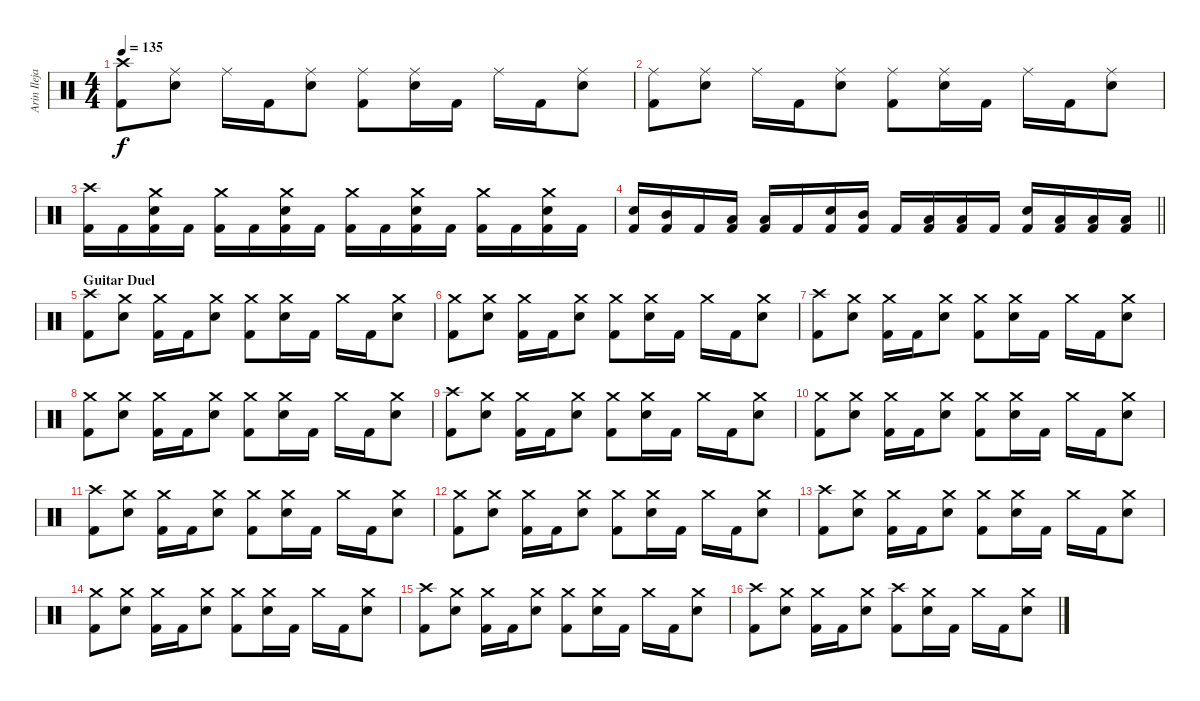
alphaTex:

\track ("Arin Ilejay" "Arin Ileja") {instrument percussion}
\staff {score}
\articulation defaults
\ts (4 4)
\tempo 135
\clef neutral
\ks c
("Crash high (hit)" "Kick (hit) 2").8{dy f} ("Ride (middle)" "Electric Snare (hit)").8 "Ride (middle)".16 "Kick (hit) 2".16 ("Ride (middle)" "Electric Snare (hit)").8 ("Ride (middle)" "Kick (hit) 2").8 ("Ride (middle)" "Electric Snare (hit)").16 "Kick (hit) 2".16 "Ride (middle)".16 "Kick (hit) 2".16 ("Ride (middle)" "Electric Snare (hit)").8 |
("Ride (middle)" "Kick (hit) 2").8 ("Ride (middle)" "Electric Snare (hit)").8 "Ride (middle)".16 "Kick (hit) 2".16 ("Ride (middle)" "Electric Snare (hit)").8 ("Ride (middle)" "Kick (hit) 2").8 ("Ride (middle)" "Electric Snare (hit)").16 "Kick (hit) 2".16 "Ride (middle)".16 "Kick (hit) 2".16 ("Ride (middle)" "Electric Snare (hit)").8 |
("Crash high (hit)" "Kick (hit) 2").16 "Kick (hit) 2".16 ("Crash medium (hit)" "Electric Snare (hit)" "Kick (hit) 2").16 "Kick (hit) 2".16 ("Crash medium (hit)" "Kick (hit) 2").16 "Kick (hit) 2".16 ("Crash medium (hit)" "Electric Snare (hit)" "Kick (hit) 2").16 "Kick (hit) 2".16 ("Crash medium (hit)" "Kick (hit) 2").16 "Kick (hit) 2".16 ("Crash medium (hit)" "Electric Snare (hit)" "Kick (hit) 2").16 "Kick (hit) 2".16 ("Crash medium (hit)" "Kick (hit) 2").16 "Kick (hit) 2".16 ("Crash medium (hit)" "Electric Snare (hit)" "Kick (hit) 2").16 "Kick (hit) 2".16 |
\barLineRight lightlight
("Electric Snare (hit)" "Kick (hit) 2").16 ("Mid Tom (hit)" "Kick (hit) 2").16 "Kick (hit) 2".16 ("Low Tom (hit)" "Kick (hit) 2").16 ("Low Tom (hit)" "Kick (hit) 2").16 "Kick (hit) 2".16 ("Electric Snare (hit)" "Kick (hit) 2").16 ("Mid Tom (hit)" "Kick (hit) 2").16 "Kick (hit) 2".16 ("Low Tom (hit)" "Kick (hit) 2").16 ("Low Tom (hit)" "Kick (hit) 2").16 "Kick (hit) 2".16 ("Electric Snare (hit)" "Kick (hit) 2").16 ("Low Tom (hit)" "Kick (hit) 2").16 ("Low Tom (hit)" "Kick (hit) 2").16 ("Low Tom (hit)" "Kick (hit) 2").16 |
\section ("" "Guitar Duel")
("Crash high (hit)" "Kick (hit) 2").8 ("Crash medium (hit)" "Electric Snare (hit)").8 ("Crash medium (hit)" "Kick (hit) 2").16 "Kick (hit) 2".16 ("Crash medium (hit)" "Electric Snare (hit)").8 ("Crash medium (hit)" "Kick (hit) 2").8 ("Crash medium (hit)" "Electric Snare (hit)").16 "Kick (hit) 2".16 "Crash medium (hit)".16 "Kick (hit) 2".16 ("Crash medium (hit)" "Electric Snare (hit)").8 |
("Crash medium (hit)" "Kick (hit) 2").8 ("Crash medium (hit)" "Electric Snare (hit)").8 ("Crash medium (hit)" "Kick (hit) 2").16 "Kick (hit) 2".16 ("Crash medium (hit)" "Electric Snare (hit)").8 ("Crash medium (hit)" "Kick (hit) 2").8 ("Crash medium (hit)" "Electric Snare (hit)").16 "Kick (hit) 2".16 "Crash medium (hit)".16 "Kick (hit) 2".16 ("Crash medium (hit)" "Electric Snare (hit)").8 |
("Crash high (hit)" "Kick (hit) 2").8 ("Crash medium (hit)" "Electric Snare (hit)").8 ("Crash medium (hit)" "Kick (hit) 2").16 "Kick (hit) 2".16 ("Crash medium (hit)" "Electric Snare (hit)").8 ("Crash medium (hit)" "Kick (hit) 2").8 ("Crash medium (hit)" "Electric Snare (hit)").16 "Kick (hit) 2".16 "Crash medium (hit)".16 "Kick (hit) 2".16 ("Crash medium (hit)" "Electric Snare (hit)").8 |
("Crash medium (hit)" "Kick (hit) 2").8 ("Crash medium (hit)" "Electric Snare (hit)").8 ("Crash medium (hit)" "Kick (hit) 2").16 "Kick (hit) 2".16 ("Crash medium (hit)" "Electric Snare (hit)").8 ("Crash medium (hit)" "Kick (hit) 2").8 ("Crash medium (hit)" "Electric Snare (hit)").16 "Kick (hit) 2".16 "Crash medium (hit)".16 "Kick (hit) 2".16 ("Crash medium (hit)" "Electric Snare (hit)").8 |
("Crash high (hit)" "Kick (hit) 2").8 ("Crash medium (hit)" "Electric Snare (hit)").8 ("Crash medium (hit)" "Kick (hit) 2").16 "Kick (hit) 2".16 ("Crash medium (hit)" "Electric Snare (hit)").8 ("Crash medium (hit)" "Kick (hit) 2").8 ("Crash medium (hit)" "Electric Snare (hit)").16 "Kick (hit) 2".16 "Crash medium (hit)".16 "Kick (hit) 2".16 ("Crash medium (hit)" "Electric Snare (hit)").8 |
("Crash medium (hit)" "Kick (hit) 2").8 ("Crash medium (hit)" "Electric Snare (hit)").8 ("Crash medium (hit)" "Kick (hit) 2").16 "Kick (hit) 2".16 ("Crash medium (hit)" "Electric Snare (hit)").8 ("Crash medium (hit)" "Kick (hit) 2").8 ("Crash medium (hit)" "Electric Snare (hit)").16 "Kick (hit) 2".16 "Crash medium (hit)".16 "Kick (hit) 2".16 ("Crash medium (hit)" "Electric Snare (hit)").8 |
("Crash high (hit)" "Kick (hit) 2").8 ("Crash medium (hit)" "Electric Snare (hit)").8 ("Crash medium (hit)" "Kick (hit) 2").16 "Kick (hit) 2".16 ("Crash medium (hit)" "Electric Snare (hit)").8 ("Crash medium (hit)" "Kick (hit) 2").8 ("Crash medium (hit)" "Electric Snare (hit)").16 "Kick (hit) 2".16 "Crash medium (hit)".16 "Kick (hit) 2".16 ("Crash medium (hit)" "Electric Snare (hit)").8 |
("Crash medium (hit)" "Kick (hit) 2").8 ("Crash medium (hit)" "Electric Snare (hit)").8 ("Crash medium (hit)" "Kick (hit) 2").16 "Kick (hit) 2".16 ("Crash medium (hit)" "Electric Snare (hit)").8 ("Crash medium (hit)" "Kick (hit) 2").8 ("Crash medium (hit)" "Electric Snare (hit)").16 "Kick (hit) 2".16 "Crash medium (hit)".16 "Kick (hit) 2".16 ("Crash medium (hit)" "Electric Snare (hit)").8 |
("Crash high (hit)" "Kick (hit) 2").8 ("Crash medium (hit)" "Electric Snare (hit)").8 ("Crash medium (hit)" "Kick (hit) 2").16 "Kick (hit) 2".16 ("Crash medium (hit)" "Electric Snare (hit)").8 ("Crash medium (hit)" "Kick (hit) 2").8 ("Crash medium (hit)" "Electric Snare (hit)").16 "Kick (hit) 2".16 "Crash medium (hit)".16 "Kick (hit) 2".16 ("Crash medium (hit)" "Electric Snare (hit)").8 |
("Crash medium (hit)" "Kick (hit) 2").8 ("Crash medium (hit)" "Electric Snare (hit)").8 ("Crash medium (hit)" "Kick (hit) 2").16 "Kick (hit) 2".16 ("Crash medium (hit)" "Electric Snare (hit)").8 ("Crash medium (hit)" "Kick (hit) 2").8 ("Crash medium (hit)" "Electric Snare (hit)").16 "Kick (hit) 2".16 "Crash medium (hit)".16 "Kick (hit) 2".16 ("Crash medium (hit)" "Electric Snare (hit)").8 |
("Crash high (hit)" "Kick (hit) 2").8 ("Crash medium (hit)" "Electric Snare (hit)").8 ("Crash medium (hit)" "Kick (hit) 2").16 "Kick (hit) 2".16 ("Crash medium (hit)" "Electric Snare (hit)").8 ("Crash medium (hit)" "Kick (hit) 2").8 ("Crash medium (hit)" "Electric Snare (hit)").16 "Kick (hit) 2".16 "Crash medium (hit)".16 "Kick (hit) 2".16 ("Crash medium (hit)" "Electric Snare (hit)").8 |
("Crash high (hit)" "Kick (hit) 2").8 ("Crash medium (hit)" "Electric Snare (hit)").8 ("Crash medium (hit)" "Kick (hit) 2").16 "Kick (hit) 2".16 ("Crash medium (hit)" "Electric Snare (hit)").8 ("Crash high (hit)" "Kick (hit) 2").8 ("Crash medium (hit)" "Electric Snare (hit)").16 "Kick (hit) 2".16 "Crash medium (hit)".16 "Kick (hit) 2".16 ("Crash medium (hit)" "Electric Snare (hit)").8
